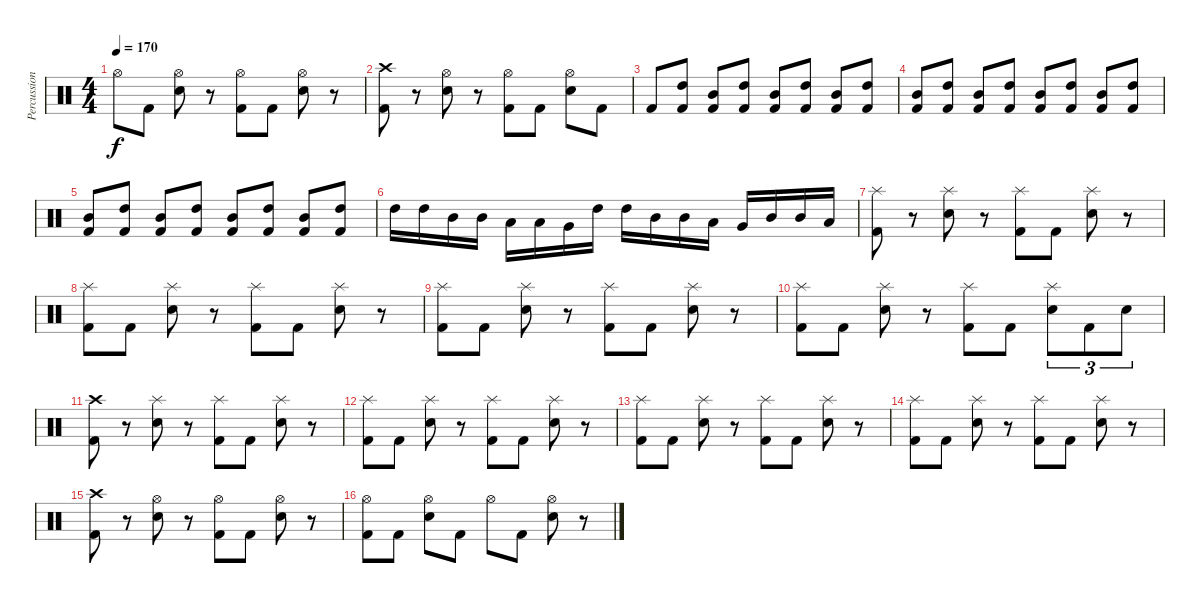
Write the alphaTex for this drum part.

\track ("Percussion" "Percussion") {instrument percussion}
\staff {score}
\articulation defaults
\ts (4 4)
\tempo 170
\clef neutral
\ks c "Hi-Hat (open)".8{dy f} "Kick (hit) 2".8
("Hi-Hat (open)" "Electric Snare (hit)").8 r.8 ("Hi-Hat (open)" "Kick (hit) 2").8 "Kick (hit) 2".8 ("Hi-Hat (open)" "Electric Snare (hit)").8 r.8 |
("Crash high (hit)" "Kick (hit) 2").8 r.8 ("Hi-Hat (open)" "Electric Snare (hit)").8 r.8 ("Hi-Hat (open)" "Kick (hit) 2").8 "Kick (hit) 2".8 ("Hi-Hat (open)" "Electric Snare (hit)").8 "Kick (hit) 2".8 |
"Kick (hit) 2".8 ("High Tom (hit)" "Kick (hit) 2").8 ("Mid Tom (hit)" "Kick (hit) 2").8 ("High Tom (hit)" "Kick (hit) 2").8 ("Mid Tom (hit)" "Kick (hit) 2").8 ("High Tom (hit)" "Kick (hit) 2").8 ("Mid Tom (hit)" "Kick (hit) 2").8 ("High Tom (hit)" "Kick (hit) 2").8 |
("Mid Tom (hit)" "Kick (hit) 2").8 ("High Tom (hit)" "Kick (hit) 2").8 ("Mid Tom (hit)" "Kick (hit) 2").8 ("High Tom (hit)" "Kick (hit) 2").8 ("Mid Tom (hit)" "Kick (hit) 2").8 ("High Tom (hit)" "Kick (hit) 2").8 ("Mid Tom (hit)" "Kick (hit) 2").8 ("High Tom (hit)" "Kick (hit) 2").8 |
("Mid Tom (hit)" "Kick (hit) 2").8 ("High Tom (hit)" "Kick (hit) 2").8 ("Mid Tom (hit)" "Kick (hit) 2").8 ("High Tom (hit)" "Kick (hit) 2").8 ("Mid Tom (hit)" "Kick (hit) 2").8 ("High Tom (hit)" "Kick (hit) 2").8 ("Mid Tom (hit)" "Kick (hit) 2").8 ("High Tom (hit)" "Kick (hit) 2").8 |
"High Tom (hit)".16 "High Tom (hit)".16 "Mid Tom (hit)".16 "Mid Tom (hit)".16 "Low Tom (hit)".16 "Low Tom (hit)".16 "Very Low Tom (hit)".16 "High Tom (hit)".16 "High Tom (hit)".16 "Mid Tom (hit)".16 "Mid Tom (hit)".16 "Low Tom (hit)".16 "Very Low Tom (hit)".16 "Mid Tom (hit)".16 "Mid Tom (hit)".16 "Low Tom (hit)".16 |
("Splash (hit)" "Kick (hit) 2").8 r.8 ("Splash (hit)" "Electric Snare (hit)").8 r.8 ("Splash (hit)" "Kick (hit) 2").8 "Kick (hit) 2".8 ("Splash (hit)" "Electric Snare (hit)").8 r.8 |
("Splash (hit)" "Kick (hit) 2").8 "Kick (hit) 2".8 ("Splash (hit)" "Electric Snare (hit)").8 r.8 ("Splash (hit)" "Kick (hit) 2").8 "Kick (hit) 2".8 ("Splash (hit)" "Electric Snare (hit)").8 r.8 |
("Splash (hit)" "Kick (hit) 2").8 "Kick (hit) 2".8 ("Splash (hit)" "Electric Snare (hit)").8 r.8 ("Splash (hit)" "Kick (hit) 2").8 "Kick (hit) 2".8 ("Splash (hit)" "Electric Snare (hit)").8 r.8 |
("Splash (hit)" "Kick (hit) 2").8 "Kick (hit) 2".8 ("Splash (hit)" "Electric Snare (hit)").8 r.8 ("Splash (hit)" "Kick (hit) 2").8 "Kick (hit) 2".8 ("Splash (hit)" "Electric Snare (hit)").8{tu (3 2)} "Kick (hit) 2".8{tu (3 2)} "Electric Snare (hit)".8{tu (3 2)} |
("Crash high (hit)" "Kick (hit) 2").8 r.8 ("Splash (hit)" "Electric Snare (hit)").8 r.8 ("Splash (hit)" "Kick (hit) 2").8 "Kick (hit) 2".8 ("Splash (hit)" "Electric Snare (hit)").8 r.8 |
("Splash (hit)" "Kick (hit) 2").8 "Kick (hit) 2".8 ("Splash (hit)" "Electric Snare (hit)").8 r.8 ("Splash (hit)" "Kick (hit) 2").8 "Kick (hit) 2".8 ("Splash (hit)" "Electric Snare (hit)").8 r.8 |
("Splash (hit)" "Kick (hit) 2").8 "Kick (hit) 2".8 ("Splash (hit)" "Electric Snare (hit)").8 r.8 ("Splash (hit)" "Kick (hit) 2").8 "Kick (hit) 2".8 ("Splash (hit)" "Electric Snare (hit)").8 r.8 |
("Splash (hit)" "Kick (hit) 2").8 "Kick (hit) 2".8 ("Splash (hit)" "Electric Snare (hit)").8 r.8 ("Splash (hit)" "Kick (hit) 2").8 "Kick (hit) 2".8 ("Splash (hit)" "Electric Snare (hit)").8 r.8 |
("Crash high (hit)" "Kick (hit) 2").8 r.8 ("Hi-Hat (open)" "Electric Snare (hit)").8 r.8 ("Hi-Hat (open)" "Kick (hit) 2").8 "Kick (hit) 2".8 ("Hi-Hat (open)" "Electric Snare (hit)").8 r.8 |
("Hi-Hat (open)" "Kick (hit) 2").8 "Kick (hit) 2".8 ("Hi-Hat (open)" "Electric Snare (hit)").8 "Kick (hit) 2".8 "Hi-Hat (open)".8 "Kick (hit) 2".8 ("Hi-Hat (open)" "Electric Snare (hit)").8 r.8
